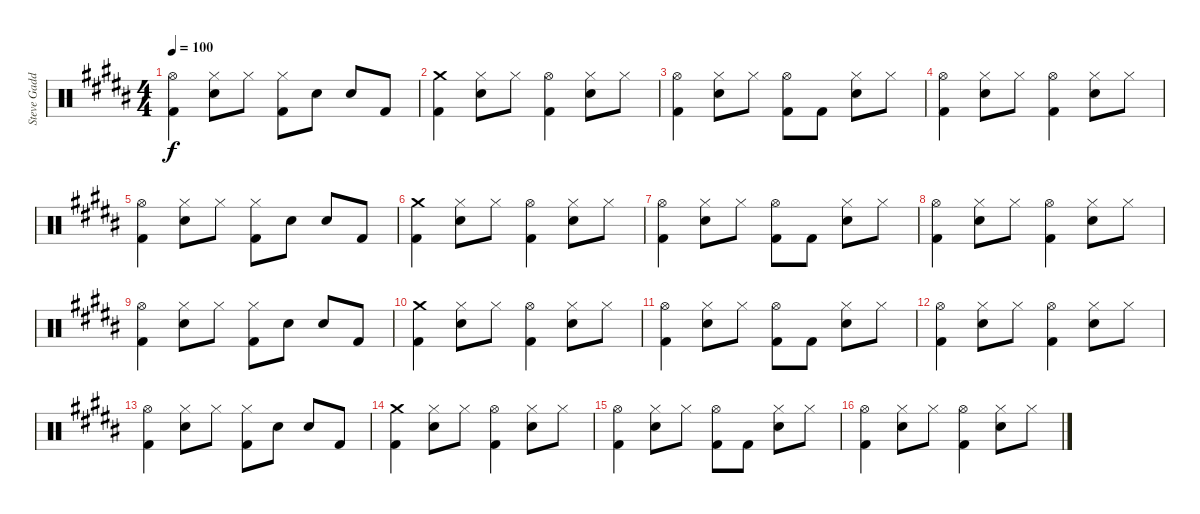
\track ("Steve Gadd Drums" "Steve Gadd") {instrument percussion}
\staff {score}
\articulation defaults
\ts (4 4)
\tempo 100
\clef neutral
\ks b
("Hi-Hat (open)" "Kick (hit) 2").4{dy f} ("Hi-Hat (closed)" "Snare (hit) 2").8 "Hi-Hat (closed)".8 ("Hi-Hat (closed)" "Kick (hit) 2").8 "Snare (hit) 2".8 "Snare (hit) 2".8 "Kick (hit) 2".8 |
("Crash medium (hit)" "Kick (hit) 2").4 ("Hi-Hat (closed)" "Snare (hit) 2").8 "Hi-Hat (closed)".8 ("Hi-Hat (open)" "Kick (hit) 2").4 ("Hi-Hat (closed)" "Snare (hit) 2").8 "Hi-Hat (closed)".8 |
("Hi-Hat (open)" "Kick (hit) 2").4 ("Hi-Hat (closed)" "Snare (hit) 2").8 "Hi-Hat (closed)".8 ("Hi-Hat (open)" "Kick (hit) 2").8 "Kick (hit) 2".8 ("Hi-Hat (closed)" "Snare (hit) 2").8 "Hi-Hat (closed)".8 |
("Hi-Hat (open)" "Kick (hit) 2").4 ("Hi-Hat (closed)" "Snare (hit) 2").8 "Hi-Hat (closed)".8 ("Hi-Hat (open)" "Kick (hit) 2").4 ("Hi-Hat (closed)" "Snare (hit) 2").8 "Hi-Hat (closed)".8 |
("Hi-Hat (open)" "Kick (hit) 2").4 ("Hi-Hat (closed)" "Snare (hit) 2").8 "Hi-Hat (closed)".8 ("Hi-Hat (closed)" "Kick (hit) 2").8 "Snare (hit) 2".8 "Snare (hit) 2".8 "Kick (hit) 2".8 |
("Crash medium (hit)" "Kick (hit) 2").4 ("Hi-Hat (closed)" "Snare (hit) 2").8 "Hi-Hat (closed)".8 ("Hi-Hat (open)" "Kick (hit) 2").4 ("Hi-Hat (closed)" "Snare (hit) 2").8 "Hi-Hat (closed)".8 |
("Hi-Hat (open)" "Kick (hit) 2").4 ("Hi-Hat (closed)" "Snare (hit) 2").8 "Hi-Hat (closed)".8 ("Hi-Hat (open)" "Kick (hit) 2").8 "Kick (hit) 2".8 ("Hi-Hat (closed)" "Snare (hit) 2").8 "Hi-Hat (closed)".8 |
("Hi-Hat (open)" "Kick (hit) 2").4 ("Hi-Hat (closed)" "Snare (hit) 2").8 "Hi-Hat (closed)".8 ("Hi-Hat (open)" "Kick (hit) 2").4 ("Hi-Hat (closed)" "Snare (hit) 2").8 "Hi-Hat (closed)".8 |
("Hi-Hat (open)" "Kick (hit) 2").4 ("Hi-Hat (closed)" "Snare (hit) 2").8 "Hi-Hat (closed)".8 ("Hi-Hat (closed)" "Kick (hit) 2").8 "Snare (hit) 2".8 "Snare (hit) 2".8 "Kick (hit) 2".8 |
("Crash medium (hit)" "Kick (hit) 2").4 ("Hi-Hat (closed)" "Snare (hit) 2").8 "Hi-Hat (closed)".8 ("Hi-Hat (open)" "Kick (hit) 2").4 ("Hi-Hat (closed)" "Snare (hit) 2").8 "Hi-Hat (closed)".8 |
("Hi-Hat (open)" "Kick (hit) 2").4 ("Hi-Hat (closed)" "Snare (hit) 2").8 "Hi-Hat (closed)".8 ("Hi-Hat (open)" "Kick (hit) 2").8 "Kick (hit) 2".8 ("Hi-Hat (closed)" "Snare (hit) 2").8 "Hi-Hat (closed)".8 |
("Hi-Hat (open)" "Kick (hit) 2").4 ("Hi-Hat (closed)" "Snare (hit) 2").8 "Hi-Hat (closed)".8 ("Hi-Hat (open)" "Kick (hit) 2").4 ("Hi-Hat (closed)" "Snare (hit) 2").8 "Hi-Hat (closed)".8 |
("Hi-Hat (open)" "Kick (hit) 2").4 ("Hi-Hat (closed)" "Snare (hit) 2").8 "Hi-Hat (closed)".8 ("Hi-Hat (closed)" "Kick (hit) 2").8 "Snare (hit) 2".8 "Snare (hit) 2".8 "Kick (hit) 2".8 |
("Crash medium (hit)" "Kick (hit) 2").4 ("Hi-Hat (closed)" "Snare (hit) 2").8 "Hi-Hat (closed)".8 ("Hi-Hat (open)" "Kick (hit) 2").4 ("Hi-Hat (closed)" "Snare (hit) 2").8 "Hi-Hat (closed)".8 |
("Hi-Hat (open)" "Kick (hit) 2").4 ("Hi-Hat (closed)" "Snare (hit) 2").8 "Hi-Hat (closed)".8 ("Hi-Hat (open)" "Kick (hit) 2").8 "Kick (hit) 2".8 ("Hi-Hat (closed)" "Snare (hit) 2").8 "Hi-Hat (closed)".8 |
("Hi-Hat (open)" "Kick (hit) 2").4 ("Hi-Hat (closed)" "Snare (hit) 2").8 "Hi-Hat (closed)".8 ("Hi-Hat (open)" "Kick (hit) 2").4 ("Hi-Hat (closed)" "Snare (hit) 2").8 "Hi-Hat (closed)".8
